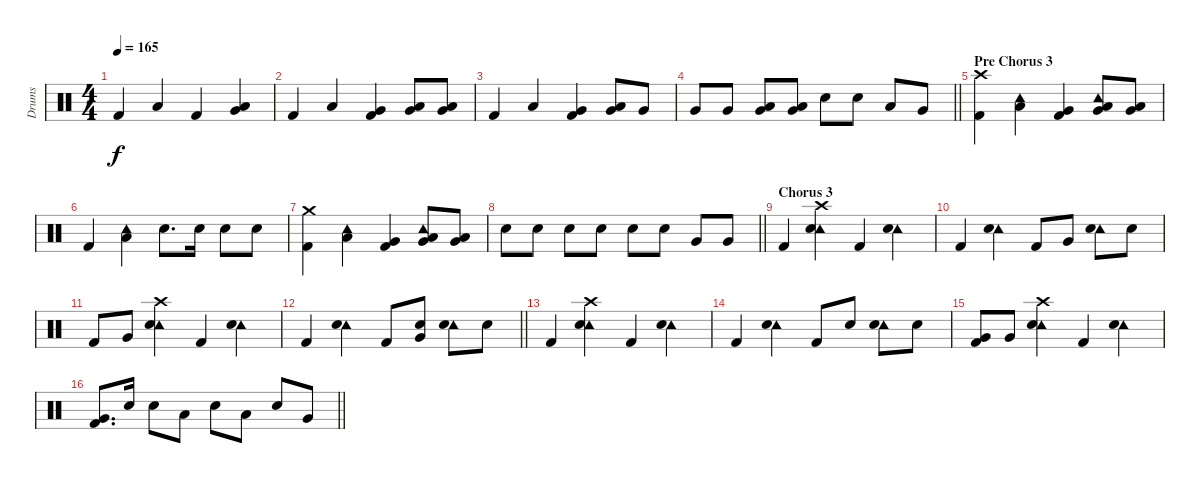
\track ("Drums" "Drums") {instrument percussion}
\staff {score}
\articulation defaults
\ts (4 4)
\tempo 165
\clef neutral
\ks c "Kick (hit) 2".4{dy f} "Low Tom (hit)".4 "Kick (hit) 2".4
("Low Tom (hit)" "Very Low Tom (hit)").4 |
"Kick (hit) 2".4 "Low Tom (hit)".4 ("Very Low Tom (hit)" "Kick (hit) 2").4 ("Low Tom (hit)" "Very Low Tom (hit)").8 ("Low Tom (hit)" "Very Low Tom (hit)").8 |
"Kick (hit) 2".4 "Low Tom (hit)".4 ("Very Low Tom (hit)" "Kick (hit) 2").4 ("Low Tom (hit)" "Very Low Tom (hit)").8 "Very Low Tom (hit)".8 |
\barLineRight lightlight "Very Low Tom (hit)".8 "Very Low Tom (hit)".8
("Low Tom (hit)" "Very Low Tom (hit)").8 ("Low Tom (hit)" "Very Low Tom (hit)").8 "Snare (hit) 2".8 "Snare (hit) 2".8 "Low Tom (hit)".8 "Very Low Tom (hit)".8 |
\section ("" "Pre Chorus 3")
("Crash high (hit)" "Kick (hit) 2").4 ("Tambourine (hit)" "Low Tom (hit)").4 ("Very Low Tom (hit)" "Kick (hit) 2").4 ("Tambourine (hit)" "Low Tom (hit)" "Very Low Tom (hit)").8 ("Low Tom (hit)" "Very Low Tom (hit)").8 |
"Kick (hit) 2".4 ("Tambourine (hit)" "Low Tom (hit)").4 "Snare (hit) 2".8{d} "Snare (hit) 2".16 "Snare (hit) 2".8 "Snare (hit) 2".8 |
("Crash medium (hit)" "Kick (hit) 2").4 ("Tambourine (hit)" "Low Tom (hit)").4 ("Very Low Tom (hit)" "Kick (hit) 2").4 ("Tambourine (hit)" "Low Tom (hit)" "Very Low Tom (hit)").8 ("Low Tom (hit)" "Very Low Tom (hit)").8 |
\barLineRight lightlight "Snare (hit) 2".8 "Snare (hit) 2".8 "Snare (hit) 2".8 "Snare (hit) 2".8 "Snare (hit) 2".8 "Snare (hit) 2".8 "Very Low Tom (hit)".8 "Very Low Tom (hit)".8
|
\section ("" "Chorus 3")
"Kick (hit) 2".4 ("Crash high (hit)" "Tambourine (hit)" "Snare (hit) 2").4 "Kick (hit) 2".4 ("Tambourine (hit)" "Snare (hit) 2").4 |
"Kick (hit) 2".4 ("Tambourine (hit)" "Snare (hit) 2").4 "Kick (hit) 2".8 "Very Low Tom (hit)".8 ("Tambourine (hit)" "Snare (hit) 2").8 "Snare (hit) 2".8 |
"Kick (hit) 2".8 "Very Low Tom (hit)".8 ("Crash high (hit)" "Tambourine (hit)" "Snare (hit) 2").4 "Kick (hit) 2".4 ("Tambourine (hit)" "Snare (hit) 2").4 |
\barLineRight lightlight "Kick (hit) 2".4
("Tambourine (hit)" "Snare (hit) 2").4 "Kick (hit) 2".8 ("Snare (hit) 2" "Very Low Tom (hit)").8 ("Tambourine (hit)" "Snare (hit) 2").8 "Snare (hit) 2".8 |
"Kick (hit) 2".4 ("Crash high (hit)" "Tambourine (hit)" "Snare (hit) 2").4 "Kick (hit) 2".4 ("Tambourine (hit)" "Snare (hit) 2").4 |
"Kick (hit) 2".4 ("Tambourine (hit)" "Snare (hit) 2").4 "Kick (hit) 2".8 "Snare (hit) 2".8 ("Tambourine (hit)" "Snare (hit) 2").8 "Snare (hit) 2".8 |
("Very Low Tom (hit)" "Kick (hit) 2").8 "Very Low Tom (hit)".8 ("Crash high (hit)" "Tambourine (hit)" "Snare (hit) 2").4 "Kick (hit) 2".4 ("Tambourine (hit)" "Snare (hit) 2").4 |
\barLineRight lightlight
("Very Low Tom (hit)" "Kick (hit) 2").8{d} "Snare (hit) 2".16 "Snare (hit) 2".8 "Low Tom (hit)".8 "Snare (hit) 2".8 "Low Tom (hit)".8 "Snare (hit) 2".8 "Very Low Tom (hit)".8
